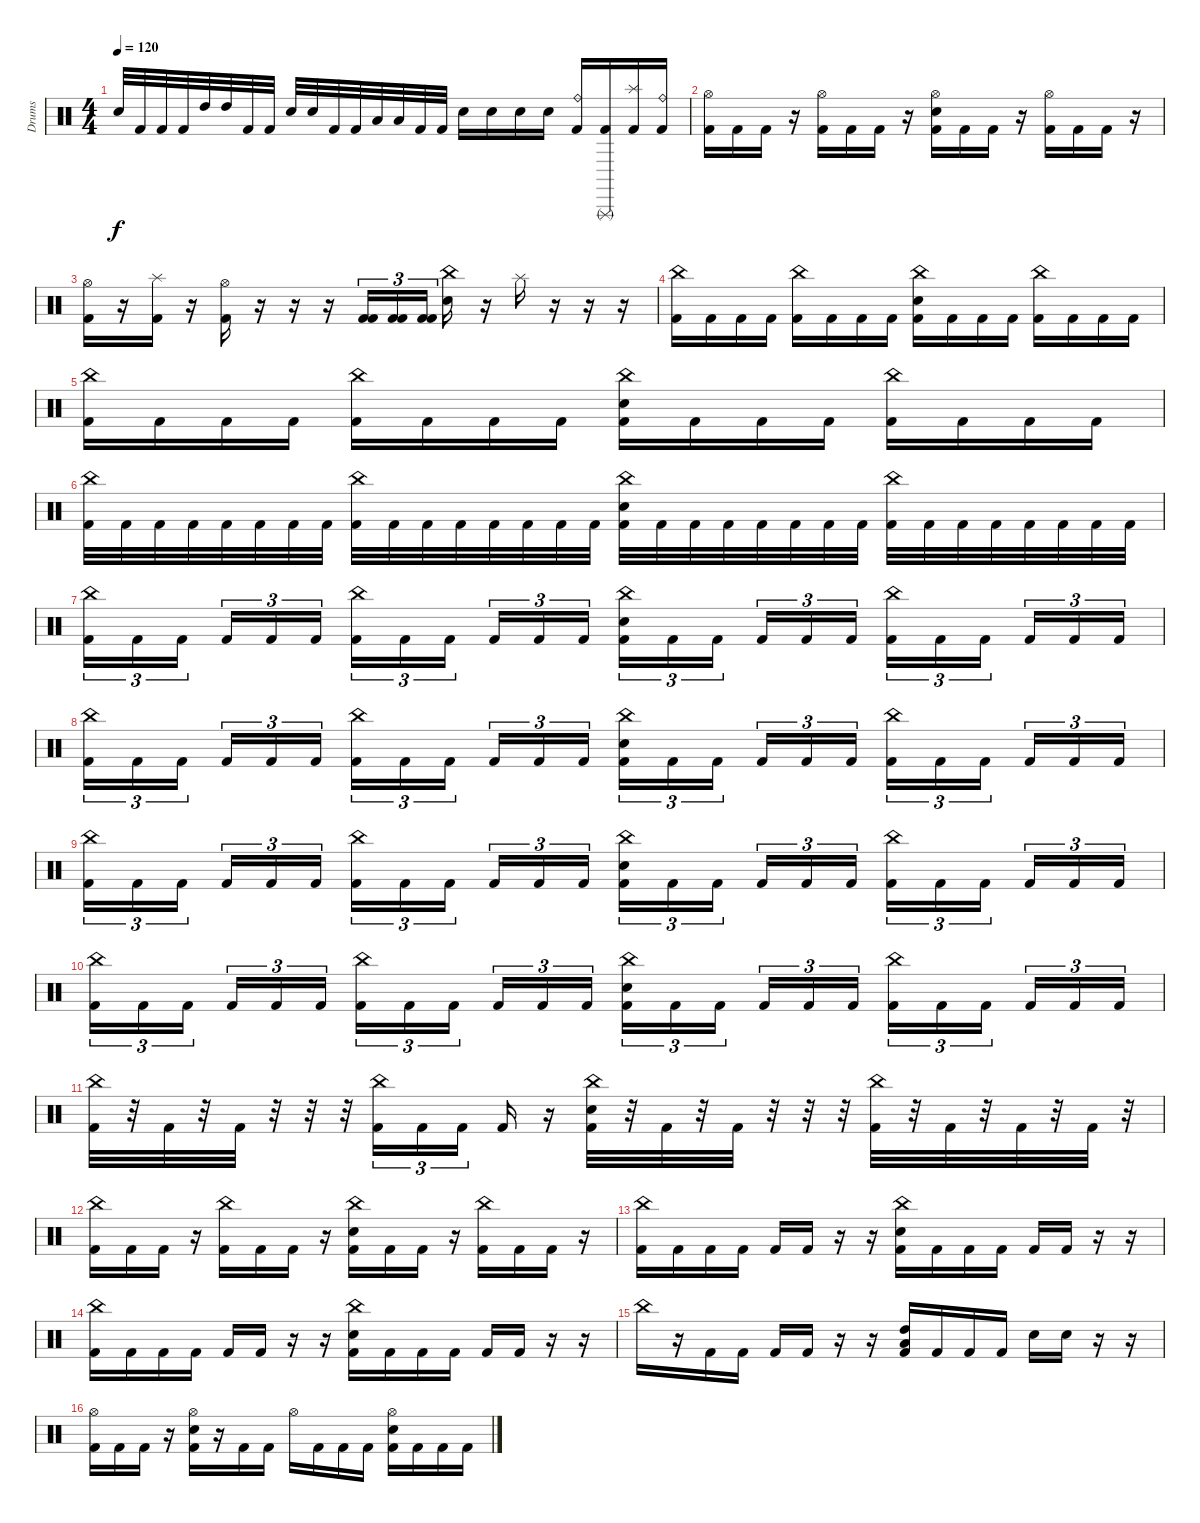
\track ("Drums" "Drums") {instrument percussion}
\staff {score}
\articulation defaults
\ts (4 4)
\tempo 120
\clef neutral
\ks c "Snare (hit) 2".32{dy f} "Kick (hit) 2".32 "Kick (hit) 2".32 "Kick (hit) 2".32 "High Tom (hit)".32 "High Tom (hit)".32 "Kick (hit) 2".32 "Kick (hit) 2".32 "Snare (hit) 2".32 "Snare (hit) 2".32 "Kick (hit) 2".32 "Kick (hit) 2".32 "Low Tom (hit)".32 "Low Tom (hit)".32 "Kick (hit) 2".32 "Kick (hit) 2".32 "Snare (hit) 2".16 "Snare (hit) 2".16 "Snare (hit) 2".16 "Snare (hit) 2".16
("Ride (bell)" "Kick (hit) 2").16 ("Triangle (rnute)" "Kick (hit) 2").16 ("Splash (hit)" "Kick (hit) 2").16 ("Ride (bell)" "Kick (hit) 2").16 |
("Hi-Hat (open)" "Kick (hit) 2").16 "Kick (hit) 2".16 "Kick (hit) 2".16 r.16 ("Hi-Hat (open)" "Kick (hit) 2").16 "Kick (hit) 2".16 "Kick (hit) 2".16 r.16 ("Hi-Hat (open)" "Snare (hit) 2" "Kick (hit) 2").16 "Kick (hit) 2".16 "Kick (hit) 2".16 r.16 ("Hi-Hat (open)" "Kick (hit) 2").16 "Kick (hit) 2".16 "Kick (hit) 2".16 r.16 |
("Hi-Hat (open)" "Kick (hit) 2").16 r.16 ("Splash (hit)" "Kick (hit) 2").16 r.16 ("Hi-Hat (open)" "Kick (hit) 2").16 r.16 r.16 r.16 ("Kick (hit) 2" "Kick (hit) 2").16{tu (3 2)} ("Kick (hit) 2" "Kick (hit) 2").16{tu (3 2)} ("Kick (hit) 2" "Kick (hit) 2").16{tu (3 2) beam splitsecondary} ("China (hit)" "Snare (hit) 2").16 r.16 "Splash (hit)".16 r.16 r.16 r.16 |
("China (hit)" "Kick (hit) 2").16 "Kick (hit) 2".16 "Kick (hit) 2".16 "Kick (hit) 2".16 ("China (hit)" "Kick (hit) 2").16 "Kick (hit) 2".16 "Kick (hit) 2".16 "Kick (hit) 2".16 ("China (hit)" "Snare (hit) 2" "Kick (hit) 2").16 "Kick (hit) 2".16 "Kick (hit) 2".16 "Kick (hit) 2".16 ("China (hit)" "Kick (hit) 2").16 "Kick (hit) 2".16 "Kick (hit) 2".16 "Kick (hit) 2".16 |
("China (hit)" "Kick (hit) 2").16 "Kick (hit) 2".16 "Kick (hit) 2".16 "Kick (hit) 2".16 ("China (hit)" "Kick (hit) 2").16 "Kick (hit) 2".16 "Kick (hit) 2".16 "Kick (hit) 2".16 ("China (hit)" "Snare (hit) 2" "Kick (hit) 2").16 "Kick (hit) 2".16 "Kick (hit) 2".16 "Kick (hit) 2".16 ("China (hit)" "Kick (hit) 2").16 "Kick (hit) 2".16 "Kick (hit) 2".16 "Kick (hit) 2".16 |
("China (hit)" "Kick (hit) 2").32 "Kick (hit) 2".32 "Kick (hit) 2".32 "Kick (hit) 2".32 "Kick (hit) 2".32 "Kick (hit) 2".32 "Kick (hit) 2".32 "Kick (hit) 2".32 ("China (hit)" "Kick (hit) 2").32 "Kick (hit) 2".32 "Kick (hit) 2".32 "Kick (hit) 2".32 "Kick (hit) 2".32 "Kick (hit) 2".32 "Kick (hit) 2".32 "Kick (hit) 2".32 ("China (hit)" "Snare (hit) 2" "Kick (hit) 2").32 "Kick (hit) 2".32 "Kick (hit) 2".32 "Kick (hit) 2".32 "Kick (hit) 2".32 "Kick (hit) 2".32 "Kick (hit) 2".32 "Kick (hit) 2".32 ("China (hit)" "Kick (hit) 2").32 "Kick (hit) 2".32 "Kick (hit) 2".32 "Kick (hit) 2".32 "Kick (hit) 2".32 "Kick (hit) 2".32 "Kick (hit) 2".32 "Kick (hit) 2".32 |
("China (hit)" "Kick (hit) 2").16{tu (3 2)} "Kick (hit) 2".16{tu (3 2)} "Kick (hit) 2".16{tu (3 2) beam splitsecondary} "Kick (hit) 2".16{tu (3 2)} "Kick (hit) 2".16{tu (3 2)} "Kick (hit) 2".16{tu (3 2)} ("China (hit)" "Kick (hit) 2").16{tu (3 2)} "Kick (hit) 2".16{tu (3 2)} "Kick (hit) 2".16{tu (3 2) beam splitsecondary} "Kick (hit) 2".16{tu (3 2)} "Kick (hit) 2".16{tu (3 2)} "Kick (hit) 2".16{tu (3 2)} ("China (hit)" "Snare (hit) 2" "Kick (hit) 2").16{tu (3 2)} "Kick (hit) 2".16{tu (3 2)} "Kick (hit) 2".16{tu (3 2) beam splitsecondary} "Kick (hit) 2".16{tu (3 2)} "Kick (hit) 2".16{tu (3 2)} "Kick (hit) 2".16{tu (3 2)} ("China (hit)" "Kick (hit) 2").16{tu (3 2)} "Kick (hit) 2".16{tu (3 2)} "Kick (hit) 2".16{tu (3 2) beam splitsecondary} "Kick (hit) 2".16{tu (3 2)} "Kick (hit) 2".16{tu (3 2)} "Kick (hit) 2".16{tu (3 2)} |
("China (hit)" "Kick (hit) 2").16{tu (3 2)} "Kick (hit) 2".16{tu (3 2)} "Kick (hit) 2".16{tu (3 2) beam splitsecondary} "Kick (hit) 2".16{tu (3 2)} "Kick (hit) 2".16{tu (3 2)} "Kick (hit) 2".16{tu (3 2)} ("China (hit)" "Kick (hit) 2").16{tu (3 2)} "Kick (hit) 2".16{tu (3 2)} "Kick (hit) 2".16{tu (3 2) beam splitsecondary} "Kick (hit) 2".16{tu (3 2)} "Kick (hit) 2".16{tu (3 2)} "Kick (hit) 2".16{tu (3 2)} ("China (hit)" "Snare (hit) 2" "Kick (hit) 2").16{tu (3 2)} "Kick (hit) 2".16{tu (3 2)} "Kick (hit) 2".16{tu (3 2) beam splitsecondary} "Kick (hit) 2".16{tu (3 2)} "Kick (hit) 2".16{tu (3 2)} "Kick (hit) 2".16{tu (3 2)} ("China (hit)" "Kick (hit) 2").16{tu (3 2)} "Kick (hit) 2".16{tu (3 2)} "Kick (hit) 2".16{tu (3 2) beam splitsecondary} "Kick (hit) 2".16{tu (3 2)} "Kick (hit) 2".16{tu (3 2)} "Kick (hit) 2".16{tu (3 2)} |
("China (hit)" "Kick (hit) 2").16{tu (3 2)} "Kick (hit) 2".16{tu (3 2)} "Kick (hit) 2".16{tu (3 2) beam splitsecondary} "Kick (hit) 2".16{tu (3 2)} "Kick (hit) 2".16{tu (3 2)} "Kick (hit) 2".16{tu (3 2)} ("China (hit)" "Kick (hit) 2").16{tu (3 2)} "Kick (hit) 2".16{tu (3 2)} "Kick (hit) 2".16{tu (3 2) beam splitsecondary} "Kick (hit) 2".16{tu (3 2)} "Kick (hit) 2".16{tu (3 2)} "Kick (hit) 2".16{tu (3 2)} ("China (hit)" "Snare (hit) 2" "Kick (hit) 2").16{tu (3 2)} "Kick (hit) 2".16{tu (3 2)} "Kick (hit) 2".16{tu (3 2) beam splitsecondary} "Kick (hit) 2".16{tu (3 2)} "Kick (hit) 2".16{tu (3 2)} "Kick (hit) 2".16{tu (3 2)} ("China (hit)" "Kick (hit) 2").16{tu (3 2)} "Kick (hit) 2".16{tu (3 2)} "Kick (hit) 2".16{tu (3 2) beam splitsecondary} "Kick (hit) 2".16{tu (3 2)} "Kick (hit) 2".16{tu (3 2)} "Kick (hit) 2".16{tu (3 2)} |
("China (hit)" "Kick (hit) 2").16{tu (3 2)} "Kick (hit) 2".16{tu (3 2)} "Kick (hit) 2".16{tu (3 2) beam splitsecondary} "Kick (hit) 2".16{tu (3 2)} "Kick (hit) 2".16{tu (3 2)} "Kick (hit) 2".16{tu (3 2)} ("China (hit)" "Kick (hit) 2").16{tu (3 2)} "Kick (hit) 2".16{tu (3 2)} "Kick (hit) 2".16{tu (3 2) beam splitsecondary} "Kick (hit) 2".16{tu (3 2)} "Kick (hit) 2".16{tu (3 2)} "Kick (hit) 2".16{tu (3 2)} ("China (hit)" "Snare (hit) 2" "Kick (hit) 2").16{tu (3 2)} "Kick (hit) 2".16{tu (3 2)} "Kick (hit) 2".16{tu (3 2) beam splitsecondary} "Kick (hit) 2".16{tu (3 2)} "Kick (hit) 2".16{tu (3 2)} "Kick (hit) 2".16{tu (3 2)} ("China (hit)" "Kick (hit) 2").16{tu (3 2)} "Kick (hit) 2".16{tu (3 2)} "Kick (hit) 2".16{tu (3 2) beam splitsecondary} "Kick (hit) 2".16{tu (3 2)} "Kick (hit) 2".16{tu (3 2)} "Kick (hit) 2".16{tu (3 2)} |
("China (hit)" "Kick (hit) 2").32 r.32 "Kick (hit) 2".32 r.32 "Kick (hit) 2".32 r.32 r.32 r.32 ("China (hit)" "Kick (hit) 2").16{tu (3 2)} "Kick (hit) 2".16{tu (3 2)} "Kick (hit) 2".16{tu (3 2) beam splitsecondary} "Kick (hit) 2".16 r.16 ("China (hit)" "Snare (hit) 2" "Kick (hit) 2").32 r.32 "Kick (hit) 2".32 r.32 "Kick (hit) 2".32 r.32 r.32 r.32 ("China (hit)" "Kick (hit) 2").32 r.32 "Kick (hit) 2".32 r.32 "Kick (hit) 2".32 r.32 "Kick (hit) 2".32 r.32 |
("China (hit)" "Kick (hit) 2").16 "Kick (hit) 2".16 "Kick (hit) 2".16 r.16 ("China (hit)" "Kick (hit) 2").16 "Kick (hit) 2".16 "Kick (hit) 2".16 r.16 ("China (hit)" "Snare (hit) 2" "Kick (hit) 2").16 "Kick (hit) 2".16 "Kick (hit) 2".16 r.16 ("China (hit)" "Kick (hit) 2").16 "Kick (hit) 2".16 "Kick (hit) 2".16 r.16 |
("China (hit)" "Kick (hit) 2").16 "Kick (hit) 2".16 "Kick (hit) 2".16 "Kick (hit) 2".16 "Kick (hit) 2".16 "Kick (hit) 2".16 r.16 r.16 ("China (hit)" "Snare (hit) 2" "Kick (hit) 2").16 "Kick (hit) 2".16 "Kick (hit) 2".16 "Kick (hit) 2".16 "Kick (hit) 2".16 "Kick (hit) 2".16 r.16 r.16 |
("China (hit)" "Kick (hit) 2").16 "Kick (hit) 2".16 "Kick (hit) 2".16 "Kick (hit) 2".16 "Kick (hit) 2".16 "Kick (hit) 2".16 r.16 r.16 ("China (hit)" "Snare (hit) 2" "Kick (hit) 2").16 "Kick (hit) 2".16 "Kick (hit) 2".16 "Kick (hit) 2".16 "Kick (hit) 2".16 "Kick (hit) 2".16 r.16 r.16 |
"China (hit)".16 r.16 "Kick (hit) 2".16 "Kick (hit) 2".16 "Kick (hit) 2".16 "Kick (hit) 2".16 r.16 r.16 ("High Tom (hit)" "Low Tom (hit)" "Kick (hit) 2").16 "Kick (hit) 2".16 "Kick (hit) 2".16 "Kick (hit) 2".16 "Snare (hit) 2".16 "Snare (hit) 2".16 r.16 r.16 |
("Hi-Hat (open)" "Kick (hit) 2").16 "Kick (hit) 2".16 "Kick (hit) 2".16 r.16 ("Hi-Hat (open)" "Snare (hit) 2" "Kick (hit) 2").16 r.16 "Kick (hit) 2".16 "Kick (hit) 2".16 "Hi-Hat (open)".16 "Kick (hit) 2".16 "Kick (hit) 2".16 "Kick (hit) 2".16 ("Hi-Hat (open)" "Snare (hit) 2" "Kick (hit) 2").16 "Kick (hit) 2".16 "Kick (hit) 2".16 "Kick (hit) 2".16
